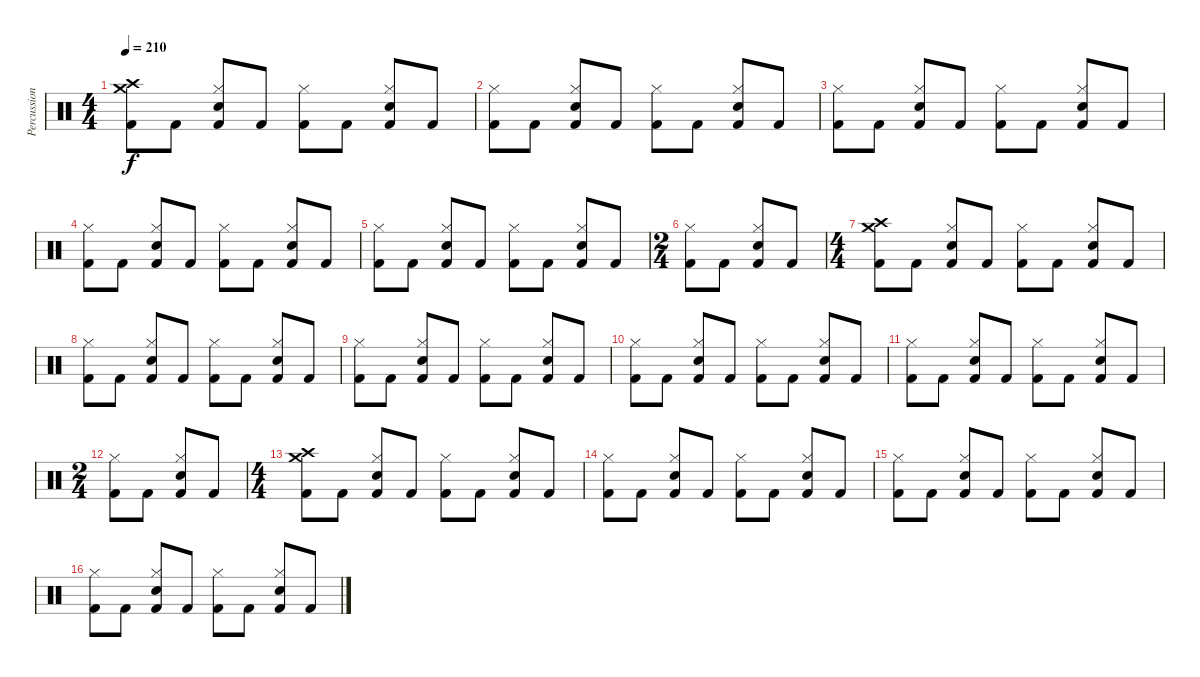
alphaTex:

\track ("Percussion" "Percussion") {instrument percussion}
\staff {score}
\articulation defaults
\ts (4 4)
\tempo 210
\clef neutral
\ks c
("Crash medium (hit)" "Crash high (hit)" "Kick (hit) 2").8{dy f} "Kick (hit) 2".8 ("Hi-Hat (closed)" "Electric Snare (hit)" "Kick (hit) 2").8 "Kick (hit) 2".8 ("Hi-Hat (closed)" "Kick (hit) 2").8 "Kick (hit) 2".8 ("Hi-Hat (closed)" "Electric Snare (hit)" "Kick (hit) 2").8 "Kick (hit) 2".8 |
("Hi-Hat (closed)" "Kick (hit) 2").8 "Kick (hit) 2".8 ("Hi-Hat (closed)" "Electric Snare (hit)" "Kick (hit) 2").8 "Kick (hit) 2".8 ("Hi-Hat (closed)" "Kick (hit) 2").8 "Kick (hit) 2".8 ("Hi-Hat (closed)" "Electric Snare (hit)" "Kick (hit) 2").8 "Kick (hit) 2".8 |
("Hi-Hat (closed)" "Kick (hit) 2").8 "Kick (hit) 2".8 ("Hi-Hat (closed)" "Electric Snare (hit)" "Kick (hit) 2").8 "Kick (hit) 2".8 ("Hi-Hat (closed)" "Kick (hit) 2").8 "Kick (hit) 2".8 ("Hi-Hat (closed)" "Electric Snare (hit)" "Kick (hit) 2").8 "Kick (hit) 2".8 |
("Hi-Hat (closed)" "Kick (hit) 2").8 "Kick (hit) 2".8 ("Hi-Hat (closed)" "Electric Snare (hit)" "Kick (hit) 2").8 "Kick (hit) 2".8 ("Hi-Hat (closed)" "Kick (hit) 2").8 "Kick (hit) 2".8 ("Hi-Hat (closed)" "Electric Snare (hit)" "Kick (hit) 2").8 "Kick (hit) 2".8 |
("Hi-Hat (closed)" "Kick (hit) 2").8 "Kick (hit) 2".8 ("Hi-Hat (closed)" "Electric Snare (hit)" "Kick (hit) 2").8 "Kick (hit) 2".8 ("Hi-Hat (closed)" "Kick (hit) 2").8 "Kick (hit) 2".8 ("Hi-Hat (closed)" "Electric Snare (hit)" "Kick (hit) 2").8 "Kick (hit) 2".8 |
\ts (2 4)
("Hi-Hat (closed)" "Kick (hit) 2").8 "Kick (hit) 2".8 ("Hi-Hat (closed)" "Electric Snare (hit)" "Kick (hit) 2").8 "Kick (hit) 2".8 |
\ts (4 4)
("Crash medium (hit)" "Crash high (hit)" "Kick (hit) 2").8 "Kick (hit) 2".8 ("Hi-Hat (closed)" "Electric Snare (hit)" "Kick (hit) 2").8 "Kick (hit) 2".8 ("Hi-Hat (closed)" "Kick (hit) 2").8 "Kick (hit) 2".8 ("Hi-Hat (closed)" "Electric Snare (hit)" "Kick (hit) 2").8 "Kick (hit) 2".8 |
("Hi-Hat (closed)" "Kick (hit) 2").8 "Kick (hit) 2".8 ("Hi-Hat (closed)" "Electric Snare (hit)" "Kick (hit) 2").8 "Kick (hit) 2".8 ("Hi-Hat (closed)" "Kick (hit) 2").8 "Kick (hit) 2".8 ("Hi-Hat (closed)" "Electric Snare (hit)" "Kick (hit) 2").8 "Kick (hit) 2".8 |
("Hi-Hat (closed)" "Kick (hit) 2").8 "Kick (hit) 2".8 ("Hi-Hat (closed)" "Electric Snare (hit)" "Kick (hit) 2").8 "Kick (hit) 2".8 ("Hi-Hat (closed)" "Kick (hit) 2").8 "Kick (hit) 2".8 ("Hi-Hat (closed)" "Electric Snare (hit)" "Kick (hit) 2").8 "Kick (hit) 2".8 |
("Hi-Hat (closed)" "Kick (hit) 2").8 "Kick (hit) 2".8 ("Hi-Hat (closed)" "Electric Snare (hit)" "Kick (hit) 2").8 "Kick (hit) 2".8 ("Hi-Hat (closed)" "Kick (hit) 2").8 "Kick (hit) 2".8 ("Hi-Hat (closed)" "Electric Snare (hit)" "Kick (hit) 2").8 "Kick (hit) 2".8 |
("Hi-Hat (closed)" "Kick (hit) 2").8 "Kick (hit) 2".8 ("Hi-Hat (closed)" "Electric Snare (hit)" "Kick (hit) 2").8 "Kick (hit) 2".8 ("Hi-Hat (closed)" "Kick (hit) 2").8 "Kick (hit) 2".8 ("Hi-Hat (closed)" "Electric Snare (hit)" "Kick (hit) 2").8 "Kick (hit) 2".8 |
\ts (2 4)
("Hi-Hat (closed)" "Kick (hit) 2").8 "Kick (hit) 2".8 ("Hi-Hat (closed)" "Electric Snare (hit)" "Kick (hit) 2").8 "Kick (hit) 2".8 |
\ts (4 4)
("Crash medium (hit)" "Crash high (hit)" "Kick (hit) 2").8 "Kick (hit) 2".8 ("Hi-Hat (closed)" "Electric Snare (hit)" "Kick (hit) 2").8 "Kick (hit) 2".8 ("Hi-Hat (closed)" "Kick (hit) 2").8 "Kick (hit) 2".8 ("Hi-Hat (closed)" "Electric Snare (hit)" "Kick (hit) 2").8 "Kick (hit) 2".8 |
("Hi-Hat (closed)" "Kick (hit) 2").8 "Kick (hit) 2".8 ("Hi-Hat (closed)" "Electric Snare (hit)" "Kick (hit) 2").8 "Kick (hit) 2".8 ("Hi-Hat (closed)" "Kick (hit) 2").8 "Kick (hit) 2".8 ("Hi-Hat (closed)" "Electric Snare (hit)" "Kick (hit) 2").8 "Kick (hit) 2".8 |
("Hi-Hat (closed)" "Kick (hit) 2").8 "Kick (hit) 2".8 ("Hi-Hat (closed)" "Electric Snare (hit)" "Kick (hit) 2").8 "Kick (hit) 2".8 ("Hi-Hat (closed)" "Kick (hit) 2").8 "Kick (hit) 2".8 ("Hi-Hat (closed)" "Electric Snare (hit)" "Kick (hit) 2").8 "Kick (hit) 2".8 |
("Hi-Hat (closed)" "Kick (hit) 2").8 "Kick (hit) 2".8 ("Hi-Hat (closed)" "Electric Snare (hit)" "Kick (hit) 2").8 "Kick (hit) 2".8 ("Hi-Hat (closed)" "Kick (hit) 2").8 "Kick (hit) 2".8 ("Hi-Hat (closed)" "Electric Snare (hit)" "Kick (hit) 2").8 "Kick (hit) 2".8
